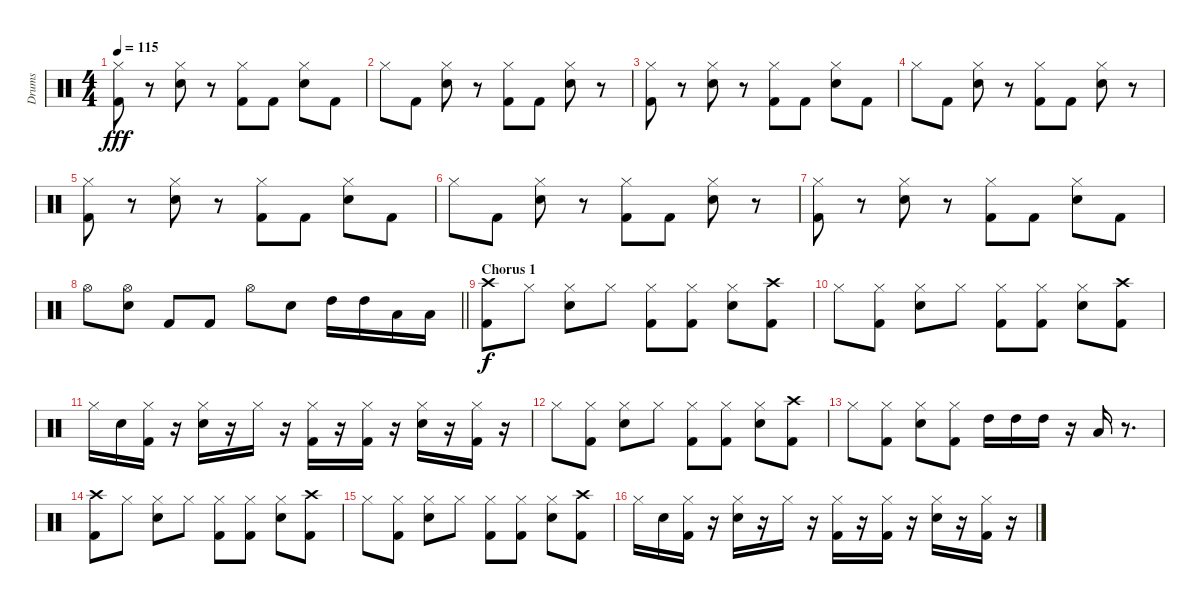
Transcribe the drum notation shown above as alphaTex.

\track ("Drums" "Drums") {instrument percussion}
\staff {score}
\articulation defaults
\ts (4 4)
\tempo 115
\clef neutral
\ks c
("Hi-Hat (closed)" "Kick (hit) 2").8{dy fff} r.8 ("Hi-Hat (closed)" "Snare (hit) 2").8 r.8 ("Hi-Hat (closed)" "Kick (hit) 2").8 "Kick (hit) 2".8 ("Hi-Hat (closed)" "Snare (hit) 2").8 "Kick (hit) 2".8 |
"Hi-Hat (closed)".8 "Kick (hit) 2".8 ("Hi-Hat (closed)" "Snare (hit) 2").8 r.8 ("Hi-Hat (closed)" "Kick (hit) 2").8 "Kick (hit) 2".8 ("Hi-Hat (closed)" "Snare (hit) 2").8 r.8 |
("Hi-Hat (closed)" "Kick (hit) 2").8 r.8 ("Hi-Hat (closed)" "Snare (hit) 2").8 r.8 ("Hi-Hat (closed)" "Kick (hit) 2").8 "Kick (hit) 2".8 ("Hi-Hat (closed)" "Snare (hit) 2").8 "Kick (hit) 2".8 |
"Hi-Hat (closed)".8 "Kick (hit) 2".8 ("Hi-Hat (closed)" "Snare (hit) 2").8 r.8 ("Hi-Hat (closed)" "Kick (hit) 2").8 "Kick (hit) 2".8 ("Hi-Hat (closed)" "Snare (hit) 2").8 r.8 |
("Hi-Hat (closed)" "Kick (hit) 2").8 r.8 ("Hi-Hat (closed)" "Snare (hit) 2").8 r.8 ("Hi-Hat (closed)" "Kick (hit) 2").8 "Kick (hit) 2".8 ("Hi-Hat (closed)" "Snare (hit) 2").8 "Kick (hit) 2".8 |
"Hi-Hat (closed)".8 "Kick (hit) 2".8 ("Hi-Hat (closed)" "Snare (hit) 2").8 r.8 ("Hi-Hat (closed)" "Kick (hit) 2").8 "Kick (hit) 2".8 ("Hi-Hat (closed)" "Snare (hit) 2").8 r.8 |
("Hi-Hat (closed)" "Kick (hit) 2").8 r.8 ("Hi-Hat (closed)" "Snare (hit) 2").8 r.8 ("Hi-Hat (closed)" "Kick (hit) 2").8 "Kick (hit) 2".8 ("Hi-Hat (closed)" "Snare (hit) 2").8 "Kick (hit) 2".8 |
\barLineRight lightlight "Hi-Hat (open)".8
("Hi-Hat (open)" "Snare (hit) 2").8 "Kick (hit) 2".8 "Kick (hit) 2".8 "Hi-Hat (open)".8 "Snare (hit) 2".8 "High Tom (hit)".16 "High Tom (hit)".16 "Low Floor Tom (hit)".16 "Low Floor Tom (hit)".16 |
\section ("" "Chorus 1")
("Crash high (hit)" "Kick (hit) 2").8{dy f} "Hi-Hat (closed)".8 ("Hi-Hat (closed)" "Snare (hit) 2").8 "Hi-Hat (closed)".8 ("Hi-Hat (closed)" "Kick (hit) 2").8 ("Hi-Hat (closed)" "Kick (hit) 2").8 ("Hi-Hat (closed)" "Snare (hit) 2").8 ("Crash high (hit)" "Kick (hit) 2").8 |
"Hi-Hat (closed)".8 ("Hi-Hat (closed)" "Kick (hit) 2").8 ("Hi-Hat (closed)" "Snare (hit) 2").8 "Hi-Hat (closed)".8 ("Hi-Hat (closed)" "Kick (hit) 2").8 ("Hi-Hat (closed)" "Kick (hit) 2").8 ("Hi-Hat (closed)" "Snare (hit) 2").8 ("Crash high (hit)" "Kick (hit) 2").8 |
"Hi-Hat (closed)".16 "Snare (hit) 2".16 ("Hi-Hat (closed)" "Kick (hit) 2").16 r.16 ("Hi-Hat (closed)" "Snare (hit) 2").16 r.16 "Hi-Hat (closed)".16 r.16 ("Hi-Hat (closed)" "Kick (hit) 2").16 r.16 ("Hi-Hat (closed)" "Kick (hit) 2").16 r.16 ("Hi-Hat (closed)" "Snare (hit) 2").16 r.16 ("Hi-Hat (closed)" "Kick (hit) 2").16 r.16 |
"Hi-Hat (closed)".8 ("Hi-Hat (closed)" "Kick (hit) 2").8 ("Hi-Hat (closed)" "Snare (hit) 2").8 "Hi-Hat (closed)".8 ("Hi-Hat (closed)" "Kick (hit) 2").8 ("Hi-Hat (closed)" "Kick (hit) 2").8 ("Hi-Hat (closed)" "Snare (hit) 2").8 ("Crash high (hit)" "Kick (hit) 2").8 |
"Hi-Hat (closed)".8 ("Hi-Hat (closed)" "Kick (hit) 2").8 ("Hi-Hat (closed)" "Snare (hit) 2").8 ("Hi-Hat (closed)" "Kick (hit) 2").8 "High Tom (hit)".16 "High Tom (hit)".16 "High Tom (hit)".16 r.16 "Low Floor Tom (hit)".16 r.8{d} |
("Crash high (hit)" "Kick (hit) 2").8 "Hi-Hat (closed)".8 ("Hi-Hat (closed)" "Snare (hit) 2").8 "Hi-Hat (closed)".8 ("Hi-Hat (closed)" "Kick (hit) 2").8 ("Hi-Hat (closed)" "Kick (hit) 2").8 ("Hi-Hat (closed)" "Snare (hit) 2").8 ("Crash high (hit)" "Kick (hit) 2").8 |
"Hi-Hat (closed)".8 ("Hi-Hat (closed)" "Kick (hit) 2").8 ("Hi-Hat (closed)" "Snare (hit) 2").8 "Hi-Hat (closed)".8 ("Hi-Hat (closed)" "Kick (hit) 2").8 ("Hi-Hat (closed)" "Kick (hit) 2").8 ("Hi-Hat (closed)" "Snare (hit) 2").8 ("Crash high (hit)" "Kick (hit) 2").8 |
"Hi-Hat (closed)".16 "Snare (hit) 2".16 ("Hi-Hat (closed)" "Kick (hit) 2").16 r.16 ("Hi-Hat (closed)" "Snare (hit) 2").16 r.16 "Hi-Hat (closed)".16 r.16 ("Hi-Hat (closed)" "Kick (hit) 2").16 r.16 ("Hi-Hat (closed)" "Kick (hit) 2").16 r.16 ("Hi-Hat (closed)" "Snare (hit) 2").16 r.16 ("Hi-Hat (closed)" "Kick (hit) 2").16 r.16
